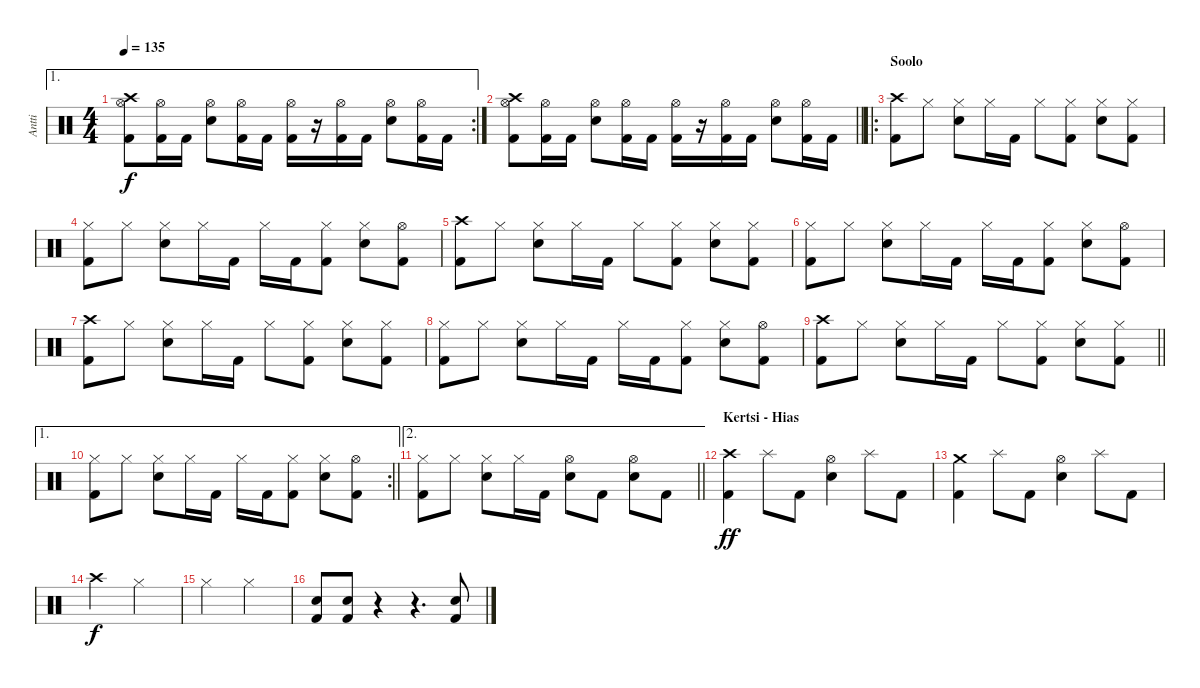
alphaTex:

\track ("Antti" "Antti") {instrument percussion}
\staff {score}
\articulation defaults
\ae 1
\rc 2
\ts (4 4)
\tempo 135
\clef neutral
\ks c
("Crash high (hit)" "Hi-Hat (open)" "Kick (hit) 2").8{dy f} ("Hi-Hat (open)" "Kick (hit) 2").16 "Kick (hit) 2".16 ("Hi-Hat (open)" "Electric Snare (hit)").8 ("Hi-Hat (open)" "Kick (hit) 2").16 "Kick (hit) 2".16 ("Hi-Hat (open)" "Kick (hit) 2").16 r.16 ("Hi-Hat (open)" "Kick (hit) 2").16 "Kick (hit) 2".16 ("Hi-Hat (open)" "Electric Snare (hit)").8 ("Hi-Hat (open)" "Kick (hit) 2").16 "Kick (hit) 2".16 |
\barLineRight lightlight
("Crash high (hit)" "Hi-Hat (open)" "Kick (hit) 2").8 ("Hi-Hat (open)" "Kick (hit) 2").16 "Kick (hit) 2".16 ("Hi-Hat (open)" "Electric Snare (hit)").8 ("Hi-Hat (open)" "Kick (hit) 2").16 "Kick (hit) 2".16 ("Hi-Hat (open)" "Kick (hit) 2").16 r.16 ("Hi-Hat (open)" "Kick (hit) 2").16 "Kick (hit) 2".16 ("Hi-Hat (open)" "Electric Snare (hit)").8 ("Hi-Hat (open)" "Kick (hit) 2").16 "Kick (hit) 2".16 |
\ro
\section ("" "Soolo")
("Crash high (hit)" "Kick (hit) 2").8 "Hi-Hat (closed)".8 ("Hi-Hat (closed)" "Snare (hit) 2").8 "Hi-Hat (closed)".16 "Kick (hit) 2".16 "Hi-Hat (closed)".8 ("Hi-Hat (closed)" "Kick (hit) 2").8 ("Hi-Hat (closed)" "Snare (hit) 2").8 ("Hi-Hat (closed)" "Kick (hit) 2").8 |
("Hi-Hat (closed)" "Kick (hit) 2").8 "Hi-Hat (closed)".8 ("Hi-Hat (closed)" "Snare (hit) 2").8 "Hi-Hat (closed)".16 "Kick (hit) 2".16 "Hi-Hat (closed)".16 "Kick (hit) 2".16 ("Hi-Hat (closed)" "Kick (hit) 2").8 ("Hi-Hat (closed)" "Snare (hit) 2").8 ("Hi-Hat (open)" "Kick (hit) 2").8 |
("Crash high (hit)" "Kick (hit) 2").8 "Hi-Hat (closed)".8 ("Hi-Hat (closed)" "Snare (hit) 2").8 "Hi-Hat (closed)".16 "Kick (hit) 2".16 "Hi-Hat (closed)".8 ("Hi-Hat (closed)" "Kick (hit) 2").8 ("Hi-Hat (closed)" "Snare (hit) 2").8 ("Hi-Hat (closed)" "Kick (hit) 2").8 |
("Hi-Hat (closed)" "Kick (hit) 2").8 "Hi-Hat (closed)".8 ("Hi-Hat (closed)" "Snare (hit) 2").8 "Hi-Hat (closed)".16 "Kick (hit) 2".16 "Hi-Hat (closed)".16 "Kick (hit) 2".16 ("Hi-Hat (closed)" "Kick (hit) 2").8 ("Hi-Hat (closed)" "Snare (hit) 2").8 ("Hi-Hat (open)" "Kick (hit) 2").8 |
("Crash high (hit)" "Kick (hit) 2").8 "Hi-Hat (closed)".8 ("Hi-Hat (closed)" "Snare (hit) 2").8 "Hi-Hat (closed)".16 "Kick (hit) 2".16 "Hi-Hat (closed)".8 ("Hi-Hat (closed)" "Kick (hit) 2").8 ("Hi-Hat (closed)" "Snare (hit) 2").8 ("Hi-Hat (closed)" "Kick (hit) 2").8 |
("Hi-Hat (closed)" "Kick (hit) 2").8 "Hi-Hat (closed)".8 ("Hi-Hat (closed)" "Snare (hit) 2").8 "Hi-Hat (closed)".16 "Kick (hit) 2".16 "Hi-Hat (closed)".16 "Kick (hit) 2".16 ("Hi-Hat (closed)" "Kick (hit) 2").8 ("Hi-Hat (closed)" "Snare (hit) 2").8 ("Hi-Hat (open)" "Kick (hit) 2").8 |
\barLineRight lightlight
("Crash high (hit)" "Kick (hit) 2").8 "Hi-Hat (closed)".8 ("Hi-Hat (closed)" "Snare (hit) 2").8 "Hi-Hat (closed)".16 "Kick (hit) 2".16 "Hi-Hat (closed)".8 ("Hi-Hat (closed)" "Kick (hit) 2").8 ("Hi-Hat (closed)" "Snare (hit) 2").8 ("Hi-Hat (closed)" "Kick (hit) 2").8 |
\ae 1
\rc 2
\barLineRight lightlight
("Hi-Hat (closed)" "Kick (hit) 2").8 "Hi-Hat (closed)".8 ("Hi-Hat (closed)" "Snare (hit) 2").8 "Hi-Hat (closed)".16 "Kick (hit) 2".16 "Hi-Hat (closed)".16 "Kick (hit) 2".16 ("Hi-Hat (closed)" "Kick (hit) 2").8 ("Hi-Hat (closed)" "Snare (hit) 2").8 ("Hi-Hat (open)" "Kick (hit) 2").8 |
\ae 2
\barLineRight lightlight
("Hi-Hat (closed)" "Kick (hit) 2").8 "Hi-Hat (closed)".8 ("Hi-Hat (closed)" "Snare (hit) 2").8 "Hi-Hat (closed)".16 "Kick (hit) 2".16 ("Hi-Hat (open)" "Snare (hit) 2").8 "Kick (hit) 2".8 ("Hi-Hat (open)" "Snare (hit) 2").8 "Kick (hit) 2".8 |
\section ("" "Kertsi - Hias")
("Crash high (hit)" "Kick (hit) 2").4{dy ff} "Splash (hit)".8 "Kick (hit) 2".8 ("Hi-Hat (open)" "Snare (hit) 2").4 "Splash (hit)".8 "Kick (hit) 2".8 |
("Crash medium (hit)" "Kick (hit) 2").4 "Splash (hit)".8 "Kick (hit) 2".8 ("Hi-Hat (open)" "Snare (hit) 2").4 "Splash (hit)".8 "Kick (hit) 2".8 |
"Crash high (hit)".2{dy f} "Hi-Hat (closed)".2 |
"Hi-Hat (closed)".2 "Hi-Hat (closed)".2 |
("Snare (hit) 2" "Kick (hit) 2").8 ("Snare (hit) 2" "Kick (hit) 2").8 r.4 r.4{d} ("Snare (hit) 2" "Kick (hit) 2").8
